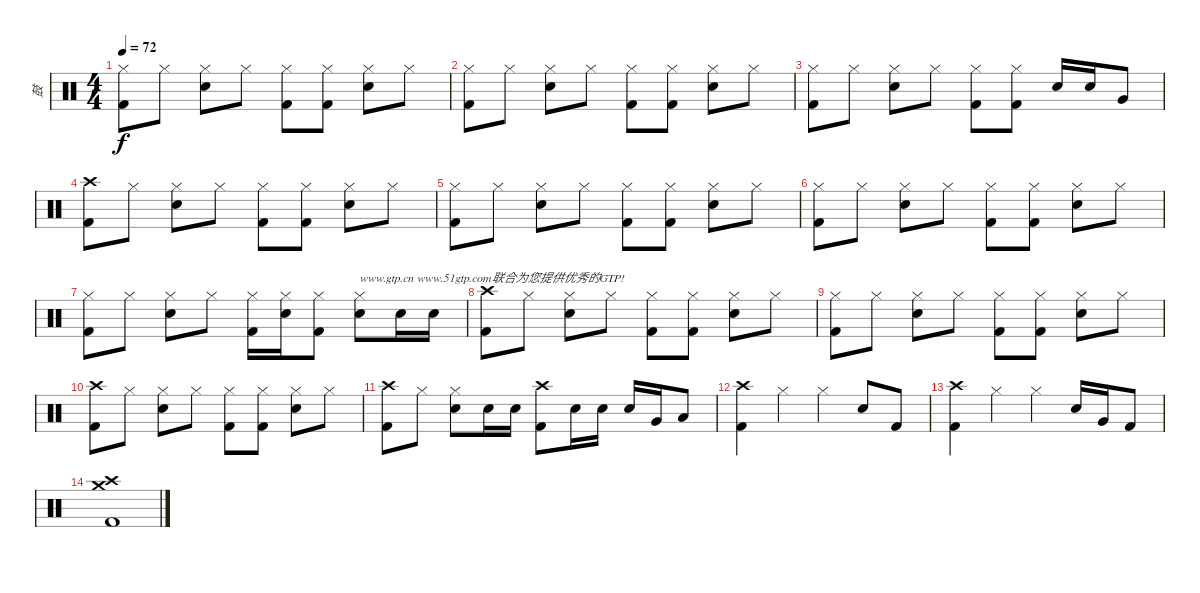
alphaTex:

\track ("鼓" "鼓") {instrument percussion}
\staff {score}
\articulation defaults
\ts (4 4)
\tempo 72
\clef neutral
\ks c
("Hi-Hat (closed)" "Kick (hit) 2").8{dy f} "Hi-Hat (closed)".8 ("Hi-Hat (closed)" "Electric Snare (hit)").8 "Hi-Hat (closed)".8 ("Hi-Hat (closed)" "Kick (hit) 2").8 ("Hi-Hat (closed)" "Kick (hit) 2").8 ("Hi-Hat (closed)" "Electric Snare (hit)").8 "Hi-Hat (closed)".8 |
("Hi-Hat (closed)" "Kick (hit) 2").8 "Hi-Hat (closed)".8 ("Hi-Hat (closed)" "Electric Snare (hit)").8 "Hi-Hat (closed)".8 ("Hi-Hat (closed)" "Kick (hit) 2").8 ("Hi-Hat (closed)" "Kick (hit) 2").8 ("Hi-Hat (closed)" "Electric Snare (hit)").8 "Hi-Hat (closed)".8 |
("Hi-Hat (closed)" "Kick (hit) 2").8 "Hi-Hat (closed)".8 ("Hi-Hat (closed)" "Electric Snare (hit)").8 "Hi-Hat (closed)".8 ("Hi-Hat (closed)" "Kick (hit) 2").8 ("Hi-Hat (closed)" "Kick (hit) 2").8 "Electric Snare (hit)".16 "Electric Snare (hit)".16 "Very Low Tom (hit)".8 |
("Crash high (hit)" "Kick (hit) 2").8 "Hi-Hat (closed)".8 ("Hi-Hat (closed)" "Electric Snare (hit)").8 "Hi-Hat (closed)".8 ("Hi-Hat (closed)" "Kick (hit) 2").8 ("Hi-Hat (closed)" "Kick (hit) 2").8 ("Hi-Hat (closed)" "Electric Snare (hit)").8 "Hi-Hat (closed)".8 |
("Hi-Hat (closed)" "Kick (hit) 2").8 "Hi-Hat (closed)".8 ("Hi-Hat (closed)" "Electric Snare (hit)").8 "Hi-Hat (closed)".8 ("Hi-Hat (closed)" "Kick (hit) 2").8 ("Hi-Hat (closed)" "Kick (hit) 2").8 ("Hi-Hat (closed)" "Electric Snare (hit)").8 "Hi-Hat (closed)".8 |
("Hi-Hat (closed)" "Kick (hit) 2").8 "Hi-Hat (closed)".8 ("Hi-Hat (closed)" "Electric Snare (hit)").8 "Hi-Hat (closed)".8 ("Hi-Hat (closed)" "Kick (hit) 2").8 ("Hi-Hat (closed)" "Kick (hit) 2").8 ("Hi-Hat (closed)" "Electric Snare (hit)").8 "Hi-Hat (closed)".8 |
("Hi-Hat (closed)" "Kick (hit) 2").8 "Hi-Hat (closed)".8 ("Hi-Hat (closed)" "Electric Snare (hit)").8 "Hi-Hat (closed)".8 ("Hi-Hat (closed)" "Kick (hit) 2").16 ("Hi-Hat (closed)" "Electric Snare (hit)").16 ("Hi-Hat (closed)" "Kick (hit) 2").8 ("Hi-Hat (closed)" "Electric Snare (hit)").8{txt "www.gtp.cn www.51gtp.com联合为您提供优秀的GTP!"} "Electric Snare (hit)".16 "Electric Snare (hit)".16 |
("Crash high (hit)" "Kick (hit) 2").8 "Hi-Hat (closed)".8 ("Hi-Hat (closed)" "Electric Snare (hit)").8 "Hi-Hat (closed)".8 ("Hi-Hat (closed)" "Kick (hit) 2").8 ("Hi-Hat (closed)" "Kick (hit) 2").8 ("Hi-Hat (closed)" "Electric Snare (hit)").8 "Hi-Hat (closed)".8 |
("Hi-Hat (closed)" "Kick (hit) 2").8 "Hi-Hat (closed)".8 ("Hi-Hat (closed)" "Electric Snare (hit)").8 "Hi-Hat (closed)".8 ("Hi-Hat (closed)" "Kick (hit) 2").8 ("Hi-Hat (closed)" "Kick (hit) 2").8 ("Hi-Hat (closed)" "Electric Snare (hit)").8 "Hi-Hat (closed)".8 |
("Crash high (hit)" "Kick (hit) 2").8 "Hi-Hat (closed)".8 ("Hi-Hat (closed)" "Electric Snare (hit)").8 "Hi-Hat (closed)".8 ("Hi-Hat (closed)" "Kick (hit) 2").8 ("Hi-Hat (closed)" "Kick (hit) 2").8 ("Hi-Hat (closed)" "Electric Snare (hit)").8 "Hi-Hat (closed)".8 |
("Crash high (hit)" "Kick (hit) 2").8 "Hi-Hat (closed)".8 ("Hi-Hat (closed)" "Electric Snare (hit)").8 "Electric Snare (hit)".16 "Electric Snare (hit)".16 ("Crash high (hit)" "Kick (hit) 2").8 "Electric Snare (hit)".16 "Electric Snare (hit)".16 "Electric Snare (hit)".16 "Very Low Tom (hit)".16 "Low Floor Tom (hit)".8 |
("Crash high (hit)" "Kick (hit) 2").4 "Hi-Hat (closed)".4 "Hi-Hat (closed)".4 "Electric Snare (hit)".8 "Kick (hit) 2".8 |
("Kick (hit) 2" "Crash high (hit)").4 "Hi-Hat (closed)".4 "Hi-Hat (closed)".4 "Electric Snare (hit)".16 "Very Low Tom (hit)".16 "Kick (hit) 2".8 |
("Crash high (hit)" "Crash medium (hit)" "Kick (hit) 2").1
